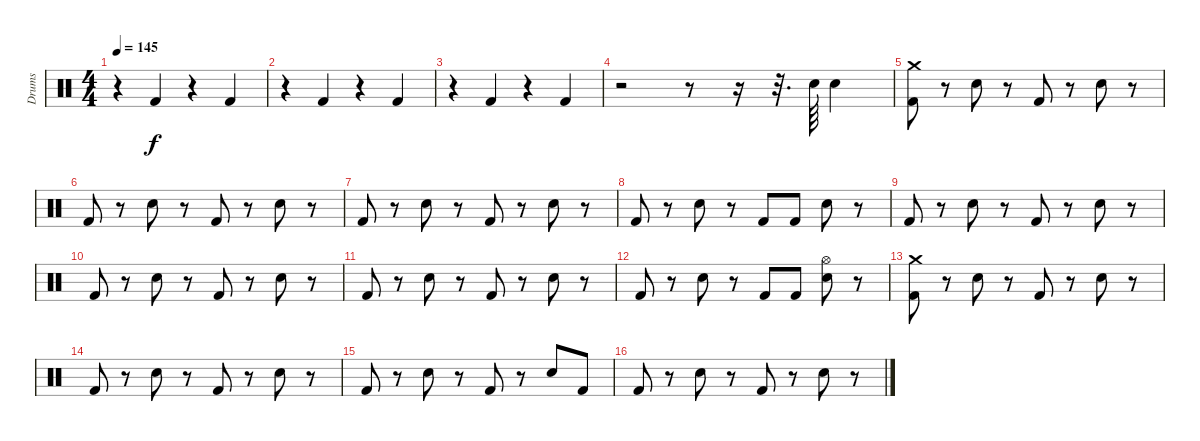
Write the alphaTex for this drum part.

\track ("Drums" "Drums") {instrument percussion}
\staff {score}
\articulation defaults
\ts (4 4)
\tempo 145
\clef neutral
\ks c
r.4{dy f} "Kick (hit) 2".4 r.4 "Kick (hit) 2".4 |
r.4 "Kick (hit) 2".4 r.4 "Kick (hit) 2".4 |
r.4 "Kick (hit) 2".4 r.4 "Kick (hit) 2".4 |
r.2 r.8 r.16 r.32{d} "Snare (hit) 2".64 "Electric Snare (hit)".4 |
("Crash medium (hit)" "Kick (hit) 2").8 r.8 "Electric Snare (hit)".8 r.8 "Kick (hit) 2".8 r.8 "Electric Snare (hit)".8 r.8 |
"Kick (hit) 2".8 r.8 "Electric Snare (hit)".8 r.8 "Kick (hit) 2".8 r.8 "Electric Snare (hit)".8 r.8 |
"Kick (hit) 2".8 r.8 "Electric Snare (hit)".8 r.8 "Kick (hit) 2".8 r.8 "Electric Snare (hit)".8 r.8 |
"Kick (hit) 2".8 r.8 "Electric Snare (hit)".8 r.8 "Kick (hit) 2".8 "Kick (hit) 2".8 "Electric Snare (hit)".8 r.8 |
"Kick (hit) 2".8 r.8 "Electric Snare (hit)".8 r.8 "Kick (hit) 2".8 r.8 "Electric Snare (hit)".8 r.8 |
"Kick (hit) 2".8 r.8 "Electric Snare (hit)".8 r.8 "Kick (hit) 2".8 r.8 "Electric Snare (hit)".8 r.8 |
"Kick (hit) 2".8 r.8 "Electric Snare (hit)".8 r.8 "Kick (hit) 2".8 r.8 "Electric Snare (hit)".8 r.8 |
"Kick (hit) 2".8 r.8 "Electric Snare (hit)".8 r.8 "Kick (hit) 2".8 "Kick (hit) 2".8 ("Hi-Hat (open)" "Electric Snare (hit)").8 r.8 |
("Crash medium (hit)" "Kick (hit) 2").8 r.8 "Electric Snare (hit)".8 r.8 "Kick (hit) 2".8 r.8 "Electric Snare (hit)".8 r.8 |
"Kick (hit) 2".8 r.8 "Electric Snare (hit)".8 r.8 "Kick (hit) 2".8 r.8 "Electric Snare (hit)".8 r.8 |
"Kick (hit) 2".8 r.8 "Electric Snare (hit)".8 r.8 "Kick (hit) 2".8 r.8 "Electric Snare (hit)".8 "Kick (hit) 2".8 |
"Kick (hit) 2".8 r.8 "Electric Snare (hit)".8 r.8 "Kick (hit) 2".8 r.8 "Electric Snare (hit)".8 r.8
